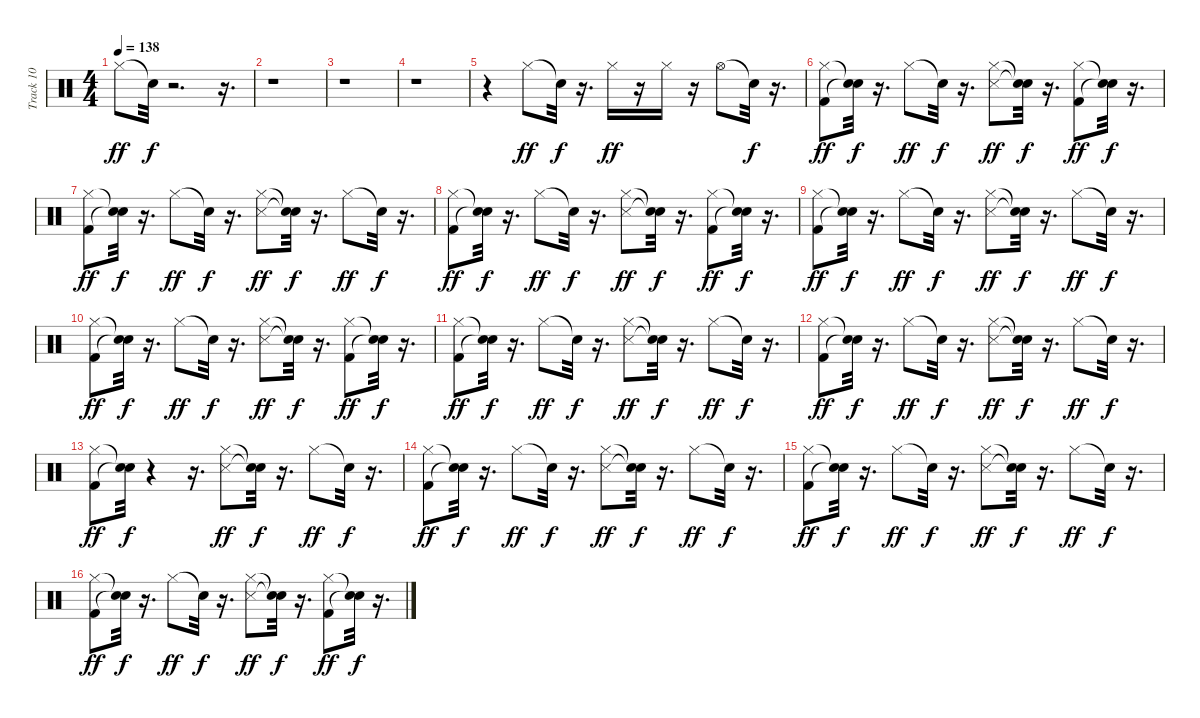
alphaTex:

\track ("Track 10" "Track 10") {instrument percussion}
\staff {score}
\articulation defaults
\ts (4 4)
\tempo 138
\clef neutral
\ks c "Hi-Hat (closed)".8{dy ff} "Snare (hit)"{t}.32{dy f}
r.2{d} r.16{d} |
r.1 |
r.1 |
r.1 |
r.4 "Hi-Hat (closed)".8{dy ff} "Snare (hit)"{t}.32{dy f} r.16{d} "Hi-Hat (closed)".16{dy ff} r.16 "Hi-Hat (closed)".16 r.16 "Hi-Hat (open)".8 "Snare (hit)"{t}.32{dy f} r.16{d} |
("Hi-Hat (closed)" "Kick (hit) 2").8{dy ff} ("Snare (hit)"{t} "Snare (hit)"{t}).32{dy f} r.16{d} "Hi-Hat (closed)".8{dy ff} "Snare (hit)"{t}.32{dy f} r.16{d} ("Snare (side stick) 3" "Hi-Hat (closed)").8{dy ff} ("Snare (hit)"{t} "Snare (hit)"{t}).32{dy f} r.16{d} ("Hi-Hat (closed)" "Kick (hit) 2").8{dy ff} ("Snare (hit)"{t} "Snare (hit)"{t}).32{dy f} r.16{d} |
("Hi-Hat (closed)" "Kick (hit) 2").8{dy ff} ("Snare (hit)"{t} "Snare (hit)"{t}).32{dy f} r.16{d} "Hi-Hat (closed)".8{dy ff} "Snare (hit)"{t}.32{dy f} r.16{d} ("Snare (side stick) 3" "Hi-Hat (closed)").8{dy ff} ("Snare (hit)"{t} "Snare (hit)"{t}).32{dy f} r.16{d} "Hi-Hat (closed)".8{dy ff} "Snare (hit)"{t}.32{dy f} r.16{d} |
("Hi-Hat (closed)" "Kick (hit) 2").8{dy ff} ("Snare (hit)"{t} "Snare (hit)"{t}).32{dy f} r.16{d} "Hi-Hat (closed)".8{dy ff} "Snare (hit)"{t}.32{dy f} r.16{d} ("Snare (side stick) 3" "Hi-Hat (closed)").8{dy ff} ("Snare (hit)"{t} "Snare (hit)"{t}).32{dy f} r.16{d} ("Hi-Hat (closed)" "Kick (hit) 2").8{dy ff} ("Snare (hit)"{t} "Snare (hit)"{t}).32{dy f} r.16{d} |
("Hi-Hat (closed)" "Kick (hit) 2").8{dy ff} ("Snare (hit)"{t} "Snare (hit)"{t}).32{dy f} r.16{d} "Hi-Hat (closed)".8{dy ff} "Snare (hit)"{t}.32{dy f} r.16{d} ("Snare (side stick) 3" "Hi-Hat (closed)").8{dy ff} ("Snare (hit)"{t} "Snare (hit)"{t}).32{dy f} r.16{d} "Hi-Hat (closed)".8{dy ff} "Snare (hit)"{t}.32{dy f} r.16{d} |
("Hi-Hat (closed)" "Kick (hit) 2").8{dy ff} ("Snare (hit)"{t} "Snare (hit)"{t}).32{dy f} r.16{d} "Hi-Hat (closed)".8{dy ff} "Snare (hit)"{t}.32{dy f} r.16{d} ("Snare (side stick) 3" "Hi-Hat (closed)").8{dy ff} ("Snare (hit)"{t} "Snare (hit)"{t}).32{dy f} r.16{d} ("Hi-Hat (closed)" "Kick (hit) 2").8{dy ff} ("Snare (hit)"{t} "Snare (hit)"{t}).32{dy f} r.16{d} |
("Hi-Hat (closed)" "Kick (hit) 2").8{dy ff} ("Snare (hit)"{t} "Snare (hit)"{t}).32{dy f} r.16{d} "Hi-Hat (closed)".8{dy ff} "Snare (hit)"{t}.32{dy f} r.16{d} ("Snare (side stick) 3" "Hi-Hat (closed)").8{dy ff} ("Snare (hit)"{t} "Snare (hit)"{t}).32{dy f} r.16{d} "Hi-Hat (closed)".8{dy ff} "Snare (hit)"{t}.32{dy f} r.16{d} |
("Hi-Hat (closed)" "Kick (hit) 2").8{dy ff} ("Snare (hit)"{t} "Snare (hit)"{t}).32{dy f} r.16{d} "Hi-Hat (closed)".8{dy ff} "Snare (hit)"{t}.32{dy f} r.16{d} ("Snare (side stick) 3" "Hi-Hat (closed)").8{dy ff} ("Snare (hit)"{t} "Snare (hit)"{t}).32{dy f} r.16{d} "Hi-Hat (closed)".8{dy ff} "Snare (hit)"{t}.32{dy f} r.16{d} |
("Hi-Hat (closed)" "Kick (hit) 2").8{dy ff} ("Snare (hit)"{t} "Snare (hit)"{t}).32{dy f} r.4 r.16{d} ("Snare (side stick) 3" "Hi-Hat (closed)").8{dy ff} ("Snare (hit)"{t} "Snare (hit)"{t}).32{dy f} r.16{d} "Hi-Hat (closed)".8{dy ff} "Snare (hit)"{t}.32{dy f} r.16{d} |
("Hi-Hat (closed)" "Kick (hit) 2").8{dy ff} ("Snare (hit)"{t} "Snare (hit)"{t}).32{dy f} r.16{d} "Hi-Hat (closed)".8{dy ff} "Snare (hit)"{t}.32{dy f} r.16{d} ("Snare (side stick) 3" "Hi-Hat (closed)").8{dy ff} ("Snare (hit)"{t} "Snare (hit)"{t}).32{dy f} r.16{d} "Hi-Hat (closed)".8{dy ff} "Snare (hit)"{t}.32{dy f} r.16{d} |
("Hi-Hat (closed)" "Kick (hit) 2").8{dy ff} ("Snare (hit)"{t} "Snare (hit)"{t}).32{dy f} r.16{d} "Hi-Hat (closed)".8{dy ff} "Snare (hit)"{t}.32{dy f} r.16{d} ("Snare (side stick) 3" "Hi-Hat (closed)").8{dy ff} ("Snare (hit)"{t} "Snare (hit)"{t}).32{dy f} r.16{d} "Hi-Hat (closed)".8{dy ff} "Snare (hit)"{t}.32{dy f} r.16{d} |
("Hi-Hat (closed)" "Kick (hit) 2").8{dy ff} ("Snare (hit)"{t} "Snare (hit)"{t}).32{dy f} r.16{d} "Hi-Hat (closed)".8{dy ff} "Snare (hit)"{t}.32{dy f} r.16{d} ("Snare (side stick) 3" "Hi-Hat (closed)").8{dy ff} ("Snare (hit)"{t} "Snare (hit)"{t}).32{dy f} r.16{d} ("Hi-Hat (closed)" "Kick (hit) 2").8{dy ff} ("Snare (hit)"{t} "Snare (hit)"{t}).32{dy f} r.16{d}
